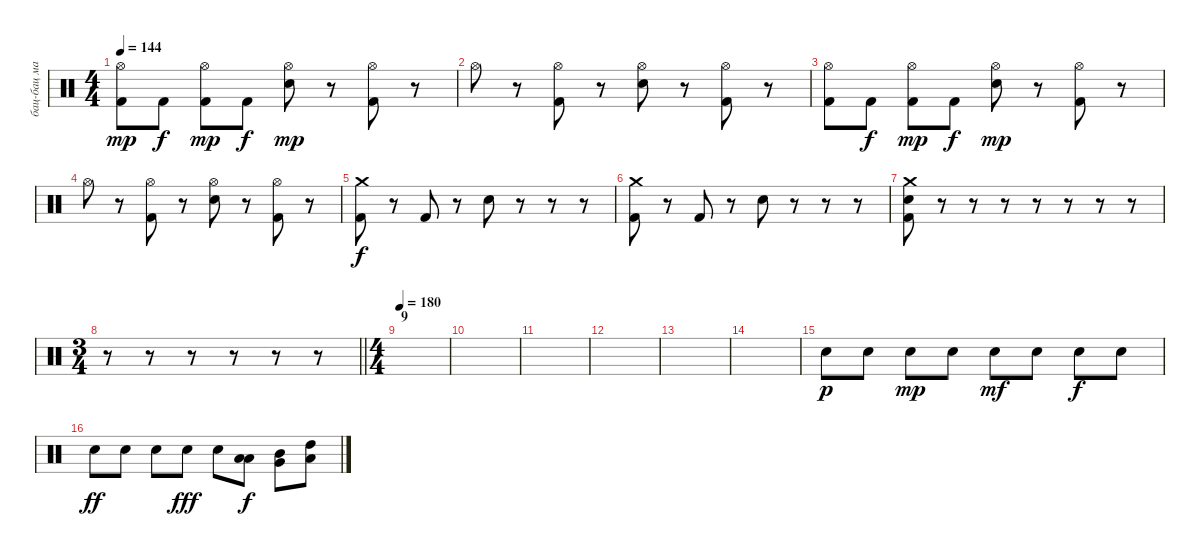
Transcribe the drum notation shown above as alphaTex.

\track ("бац-бац машина" "бац-бац ма") {instrument percussion}
\staff {score}
\articulation defaults
\ts (4 4)
\tempo 144
\clef neutral
\ks c
("Hi-Hat (open)" "Kick (hit) 2").8{dy mp} "Kick (hit) 2".8{dy f} ("Hi-Hat (open)" "Kick (hit) 2").8{dy mp} "Kick (hit) 2".8{dy f} ("Hi-Hat (open)" "Snare (hit) 2").8{dy mp} r.8 ("Hi-Hat (open)" "Kick (hit) 2").8 r.8 |
"Hi-Hat (open)".8 r.8 ("Hi-Hat (open)" "Kick (hit) 2").8 r.8 ("Hi-Hat (open)" "Snare (hit) 2").8 r.8 ("Hi-Hat (open)" "Kick (hit) 2").8 r.8 |
("Hi-Hat (open)" "Kick (hit) 2").8 "Kick (hit) 2".8{dy f} ("Hi-Hat (open)" "Kick (hit) 2").8{dy mp} "Kick (hit) 2".8{dy f} ("Hi-Hat (open)" "Snare (hit) 2").8{dy mp} r.8 ("Hi-Hat (open)" "Kick (hit) 2").8 r.8 |
"Hi-Hat (open)".8 r.8 ("Hi-Hat (open)" "Kick (hit) 2").8 r.8 ("Hi-Hat (open)" "Snare (hit) 2").8 r.8 ("Hi-Hat (open)" "Kick (hit) 2").8 r.8 |
("Crash medium (hit)" "Kick (hit) 2").8{dy f} r.8 "Kick (hit) 2".8 r.8 "Snare (hit) 2".8 r.8 r.8 r.8 |
("Crash medium (hit)" "Kick (hit) 2").8 r.8 "Kick (hit) 2".8 r.8 "Snare (hit) 2".8 r.8 r.8 r.8 |
("Crash medium (hit)" "Snare (hit) 2" "Kick (hit) 2").8 r.8 r.8 r.8 r.8 r.8 r.8 r.8 |
\ts (3 4)
\barLineRight lightlight
r.8 r.8 r.8 r.8 r.8 r.8 |
\ts (4 4)
\section ("" "9")
\tempo 180
|
|
|
|
|
|
"Snare (hit) 2".8{dy p} "Snare (hit) 2".8 "Snare (hit) 2".8{dy mp} "Snare (hit) 2".8 "Snare (hit) 2".8{dy mf} "Snare (hit) 2".8 "Snare (hit) 2".8{dy f} "Snare (hit) 2".8 |
"Snare (hit) 2".8{dy ff} "Snare (hit) 2".8 "Snare (hit) 2".8 "Snare (hit) 2".8{dy fff} "Snare (hit) 2".8 ("Low Tom (hit)" "Low Floor Tom (hit)").8{dy f} ("Mid Tom (hit)" "Very Low Tom (hit)").8 ("High Tom (hit)" "Low Tom (hit)").8
